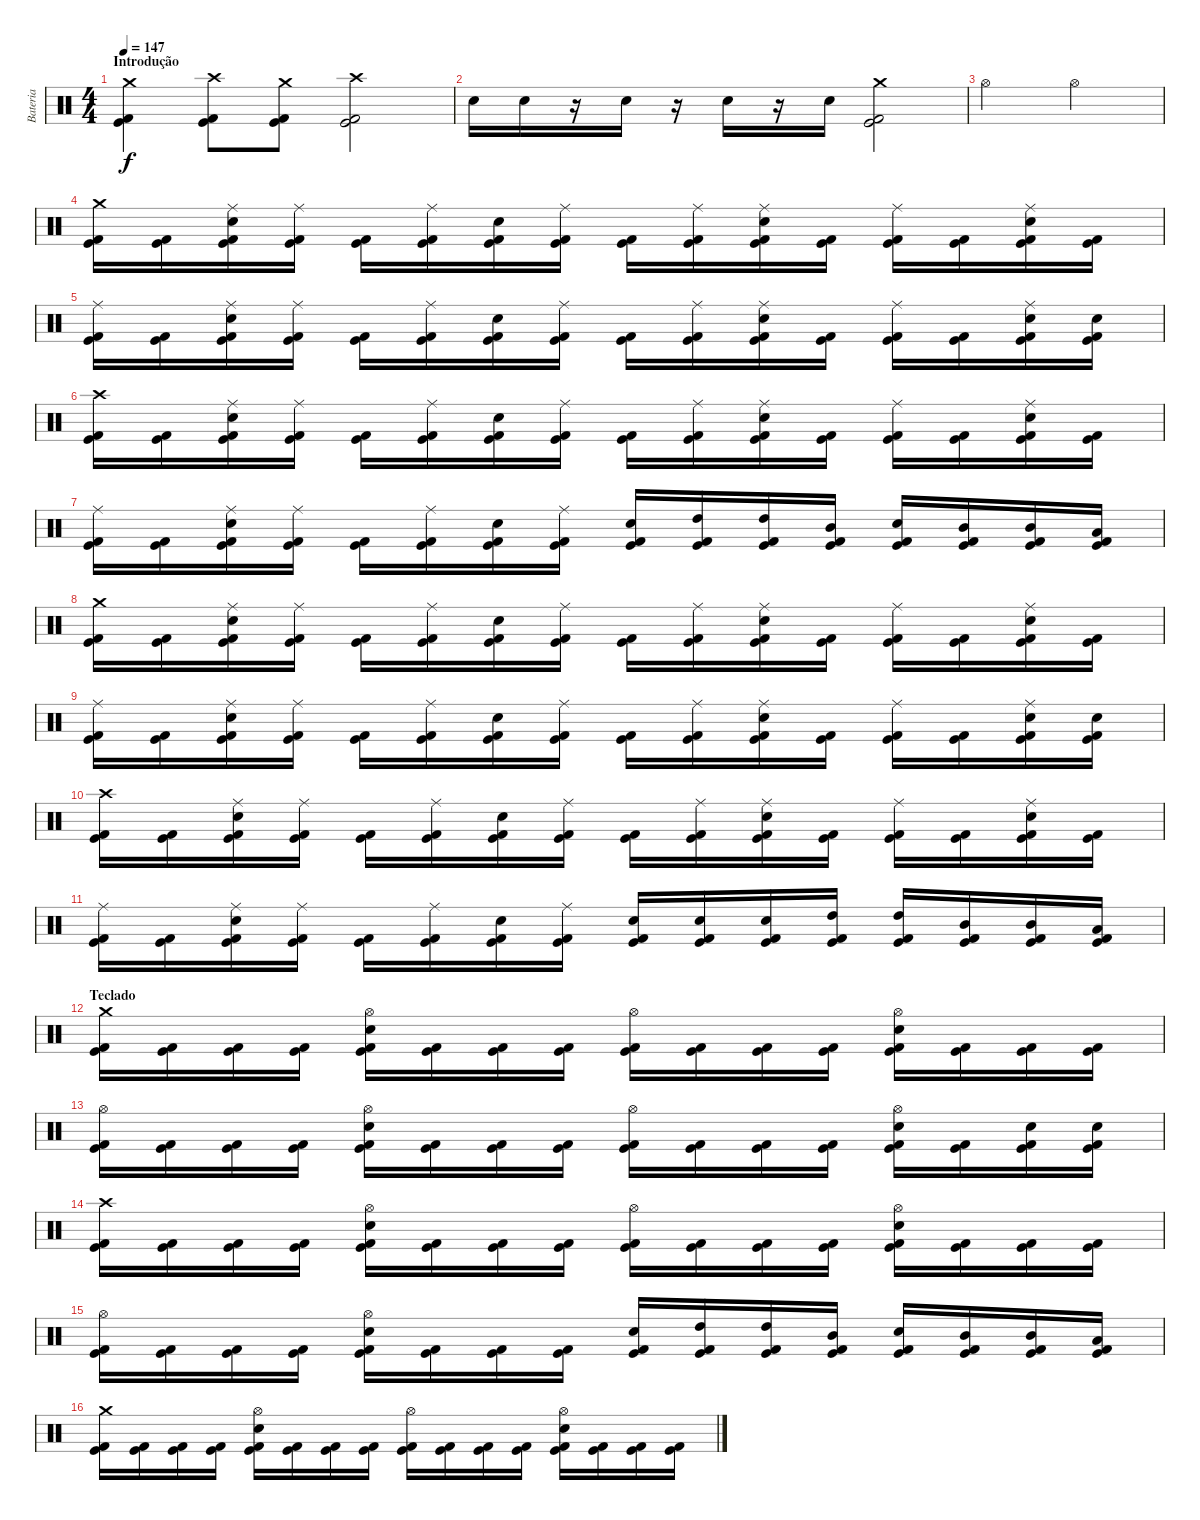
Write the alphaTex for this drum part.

\track ("Bateria" "Bateria") {instrument percussion}
\staff {score}
\articulation defaults
\ts (4 4)
\section ("" "Introdução")
\tempo 147
\clef neutral
\ks c
("Crash medium (hit)" "Kick (hit)" "Kick (hit) 2").4{dy f} ("Crash high (hit)" "Kick (hit)" "Kick (hit) 2").8 ("Crash medium (hit)" "Kick (hit)" "Kick (hit) 2").8 ("Crash high (hit)" "Kick (hit)" "Kick (hit) 2").2 |
"Electric Snare (hit)".16 "Electric Snare (hit)".16 r.16 "Electric Snare (hit)".16 r.16 "Electric Snare (hit)".16 r.16 "Electric Snare (hit)".16 ("Crash medium (hit)" "Kick (hit)" "Kick (hit) 2").2 |
"Hi-Hat (open)".2 "Hi-Hat (open)".2 |
("Crash medium (hit)" "Kick (hit)" "Kick (hit) 2").16 ("Kick (hit)" "Kick (hit) 2").16 ("Ride (middle)" "Electric Snare (hit)" "Kick (hit)" "Kick (hit) 2").16 ("Ride (middle)" "Kick (hit)" "Kick (hit) 2").16 ("Kick (hit)" "Kick (hit) 2").16 ("Ride (middle)" "Kick (hit)" "Kick (hit) 2").16 ("Electric Snare (hit)" "Kick (hit)" "Kick (hit) 2").16 ("Ride (middle)" "Kick (hit)" "Kick (hit) 2").16 ("Kick (hit)" "Kick (hit) 2").16 ("Ride (middle)" "Kick (hit)" "Kick (hit) 2").16 ("Ride (middle)" "Electric Snare (hit)" "Kick (hit)" "Kick (hit) 2").16 ("Kick (hit)" "Kick (hit) 2").16 ("Ride (middle)" "Kick (hit)" "Kick (hit) 2").16 ("Kick (hit)" "Kick (hit) 2").16 ("Ride (middle)" "Electric Snare (hit)" "Kick (hit)" "Kick (hit) 2").16 ("Kick (hit)" "Kick (hit) 2").16 |
("Ride (middle)" "Kick (hit)" "Kick (hit) 2").16 ("Kick (hit)" "Kick (hit) 2").16 ("Ride (middle)" "Electric Snare (hit)" "Kick (hit)" "Kick (hit) 2").16 ("Ride (middle)" "Kick (hit)" "Kick (hit) 2").16 ("Kick (hit)" "Kick (hit) 2").16 ("Ride (middle)" "Kick (hit)" "Kick (hit) 2").16 ("Electric Snare (hit)" "Kick (hit)" "Kick (hit) 2").16 ("Ride (middle)" "Kick (hit)" "Kick (hit) 2").16 ("Kick (hit)" "Kick (hit) 2").16 ("Ride (middle)" "Kick (hit)" "Kick (hit) 2").16 ("Ride (middle)" "Electric Snare (hit)" "Kick (hit)" "Kick (hit) 2").16 ("Kick (hit)" "Kick (hit) 2").16 ("Ride (middle)" "Kick (hit)" "Kick (hit) 2").16 ("Kick (hit)" "Kick (hit) 2").16 ("Ride (middle)" "Electric Snare (hit)" "Kick (hit)" "Kick (hit) 2").16 ("Electric Snare (hit)" "Kick (hit)" "Kick (hit) 2").16 |
("Crash high (hit)" "Kick (hit)" "Kick (hit) 2").16 ("Kick (hit)" "Kick (hit) 2").16 ("Ride (middle)" "Electric Snare (hit)" "Kick (hit)" "Kick (hit) 2").16 ("Ride (middle)" "Kick (hit)" "Kick (hit) 2").16 ("Kick (hit)" "Kick (hit) 2").16 ("Ride (middle)" "Kick (hit)" "Kick (hit) 2").16 ("Electric Snare (hit)" "Kick (hit)" "Kick (hit) 2").16 ("Ride (middle)" "Kick (hit)" "Kick (hit) 2").16 ("Kick (hit)" "Kick (hit) 2").16 ("Ride (middle)" "Kick (hit)" "Kick (hit) 2").16 ("Ride (middle)" "Electric Snare (hit)" "Kick (hit)" "Kick (hit) 2").16 ("Kick (hit)" "Kick (hit) 2").16 ("Ride (middle)" "Kick (hit)" "Kick (hit) 2").16 ("Kick (hit)" "Kick (hit) 2").16 ("Ride (middle)" "Electric Snare (hit)" "Kick (hit)" "Kick (hit) 2").16 ("Kick (hit)" "Kick (hit) 2").16 |
("Ride (middle)" "Kick (hit)" "Kick (hit) 2").16 ("Kick (hit)" "Kick (hit) 2").16 ("Ride (middle)" "Electric Snare (hit)" "Kick (hit)" "Kick (hit) 2").16 ("Ride (middle)" "Kick (hit)" "Kick (hit) 2").16 ("Kick (hit)" "Kick (hit) 2").16 ("Ride (middle)" "Kick (hit)" "Kick (hit) 2").16 ("Electric Snare (hit)" "Kick (hit)" "Kick (hit) 2").16 ("Ride (middle)" "Kick (hit)" "Kick (hit) 2").16 ("Electric Snare (hit)" "Kick (hit)" "Kick (hit) 2").16 ("High Tom (hit)" "Kick (hit)" "Kick (hit) 2").16 ("High Tom (hit)" "Kick (hit)" "Kick (hit) 2").16 ("Mid Tom (hit)" "Kick (hit)" "Kick (hit) 2").16 ("Electric Snare (hit)" "Kick (hit)" "Kick (hit) 2").16 ("Mid Tom (hit)" "Kick (hit)" "Kick (hit) 2").16 ("Mid Tom (hit)" "Kick (hit)" "Kick (hit) 2").16 ("Low Tom (hit)" "Kick (hit)" "Kick (hit) 2").16 |
("Crash medium (hit)" "Kick (hit)" "Kick (hit) 2").16 ("Kick (hit)" "Kick (hit) 2").16 ("Ride (middle)" "Electric Snare (hit)" "Kick (hit)" "Kick (hit) 2").16 ("Ride (middle)" "Kick (hit)" "Kick (hit) 2").16 ("Kick (hit)" "Kick (hit) 2").16 ("Ride (middle)" "Kick (hit)" "Kick (hit) 2").16 ("Electric Snare (hit)" "Kick (hit)" "Kick (hit) 2").16 ("Ride (middle)" "Kick (hit)" "Kick (hit) 2").16 ("Kick (hit)" "Kick (hit) 2").16 ("Ride (middle)" "Kick (hit)" "Kick (hit) 2").16 ("Ride (middle)" "Electric Snare (hit)" "Kick (hit)" "Kick (hit) 2").16 ("Kick (hit)" "Kick (hit) 2").16 ("Ride (middle)" "Kick (hit)" "Kick (hit) 2").16 ("Kick (hit)" "Kick (hit) 2").16 ("Ride (middle)" "Electric Snare (hit)" "Kick (hit)" "Kick (hit) 2").16 ("Kick (hit)" "Kick (hit) 2").16 |
("Ride (middle)" "Kick (hit)" "Kick (hit) 2").16 ("Kick (hit)" "Kick (hit) 2").16 ("Ride (middle)" "Electric Snare (hit)" "Kick (hit)" "Kick (hit) 2").16 ("Ride (middle)" "Kick (hit)" "Kick (hit) 2").16 ("Kick (hit)" "Kick (hit) 2").16 ("Ride (middle)" "Kick (hit)" "Kick (hit) 2").16 ("Electric Snare (hit)" "Kick (hit)" "Kick (hit) 2").16 ("Ride (middle)" "Kick (hit)" "Kick (hit) 2").16 ("Kick (hit)" "Kick (hit) 2").16 ("Ride (middle)" "Kick (hit)" "Kick (hit) 2").16 ("Ride (middle)" "Electric Snare (hit)" "Kick (hit)" "Kick (hit) 2").16 ("Kick (hit)" "Kick (hit) 2").16 ("Ride (middle)" "Kick (hit)" "Kick (hit) 2").16 ("Kick (hit)" "Kick (hit) 2").16 ("Ride (middle)" "Electric Snare (hit)" "Kick (hit)" "Kick (hit) 2").16 ("Electric Snare (hit)" "Kick (hit)" "Kick (hit) 2").16 |
("Crash high (hit)" "Kick (hit)" "Kick (hit) 2").16 ("Kick (hit)" "Kick (hit) 2").16 ("Ride (middle)" "Electric Snare (hit)" "Kick (hit)" "Kick (hit) 2").16 ("Ride (middle)" "Kick (hit)" "Kick (hit) 2").16 ("Kick (hit)" "Kick (hit) 2").16 ("Ride (middle)" "Kick (hit)" "Kick (hit) 2").16 ("Electric Snare (hit)" "Kick (hit)" "Kick (hit) 2").16 ("Ride (middle)" "Kick (hit)" "Kick (hit) 2").16 ("Kick (hit)" "Kick (hit) 2").16 ("Ride (middle)" "Kick (hit)" "Kick (hit) 2").16 ("Ride (middle)" "Electric Snare (hit)" "Kick (hit)" "Kick (hit) 2").16 ("Kick (hit)" "Kick (hit) 2").16 ("Ride (middle)" "Kick (hit)" "Kick (hit) 2").16 ("Kick (hit)" "Kick (hit) 2").16 ("Ride (middle)" "Electric Snare (hit)" "Kick (hit)" "Kick (hit) 2").16 ("Kick (hit)" "Kick (hit) 2").16 |
("Ride (middle)" "Kick (hit)" "Kick (hit) 2").16 ("Kick (hit)" "Kick (hit) 2").16 ("Ride (middle)" "Electric Snare (hit)" "Kick (hit)" "Kick (hit) 2").16 ("Ride (middle)" "Kick (hit)" "Kick (hit) 2").16 ("Kick (hit)" "Kick (hit) 2").16 ("Ride (middle)" "Kick (hit)" "Kick (hit) 2").16 ("Electric Snare (hit)" "Kick (hit)" "Kick (hit) 2").16 ("Ride (middle)" "Kick (hit)" "Kick (hit) 2").16 ("Electric Snare (hit)" "Kick (hit)" "Kick (hit) 2").16 ("Electric Snare (hit)" "Kick (hit)" "Kick (hit) 2").16 ("Electric Snare (hit)" "Kick (hit)" "Kick (hit) 2").16 ("High Tom (hit)" "Kick (hit)" "Kick (hit) 2").16 ("High Tom (hit)" "Kick (hit)" "Kick (hit) 2").16 ("Mid Tom (hit)" "Kick (hit)" "Kick (hit) 2").16 ("Mid Tom (hit)" "Kick (hit)" "Kick (hit) 2").16 ("Low Tom (hit)" "Kick (hit)" "Kick (hit) 2").16 |
\section ("" "Teclado")
("Crash medium (hit)" "Kick (hit)" "Kick (hit) 2").16 ("Kick (hit)" "Kick (hit) 2").16 ("Kick (hit)" "Kick (hit) 2").16 ("Kick (hit)" "Kick (hit) 2").16 ("Hi-Hat (open)" "Electric Snare (hit)" "Kick (hit)" "Kick (hit) 2").16 ("Kick (hit)" "Kick (hit) 2").16 ("Kick (hit)" "Kick (hit) 2").16 ("Kick (hit)" "Kick (hit) 2").16 ("Hi-Hat (open)" "Kick (hit)" "Kick (hit) 2").16 ("Kick (hit)" "Kick (hit) 2").16 ("Kick (hit)" "Kick (hit) 2").16 ("Kick (hit)" "Kick (hit) 2").16 ("Hi-Hat (open)" "Electric Snare (hit)" "Kick (hit)" "Kick (hit) 2").16 ("Kick (hit)" "Kick (hit) 2").16 ("Kick (hit)" "Kick (hit) 2").16 ("Kick (hit)" "Kick (hit) 2").16 |
("Hi-Hat (open)" "Kick (hit)" "Kick (hit) 2").16 ("Kick (hit)" "Kick (hit) 2").16 ("Kick (hit)" "Kick (hit) 2").16 ("Kick (hit)" "Kick (hit) 2").16 ("Hi-Hat (open)" "Electric Snare (hit)" "Kick (hit)" "Kick (hit) 2").16 ("Kick (hit)" "Kick (hit) 2").16 ("Kick (hit)" "Kick (hit) 2").16 ("Kick (hit)" "Kick (hit) 2").16 ("Hi-Hat (open)" "Kick (hit)" "Kick (hit) 2").16 ("Kick (hit)" "Kick (hit) 2").16 ("Kick (hit)" "Kick (hit) 2").16 ("Kick (hit)" "Kick (hit) 2").16 ("Hi-Hat (open)" "Electric Snare (hit)" "Kick (hit)" "Kick (hit) 2").16 ("Kick (hit)" "Kick (hit) 2").16 ("Electric Snare (hit)" "Kick (hit)" "Kick (hit) 2").16 ("Electric Snare (hit)" "Kick (hit)" "Kick (hit) 2").16 |
("Crash high (hit)" "Kick (hit)" "Kick (hit) 2").16 ("Kick (hit)" "Kick (hit) 2").16 ("Kick (hit)" "Kick (hit) 2").16 ("Kick (hit)" "Kick (hit) 2").16 ("Hi-Hat (open)" "Electric Snare (hit)" "Kick (hit)" "Kick (hit) 2").16 ("Kick (hit)" "Kick (hit) 2").16 ("Kick (hit)" "Kick (hit) 2").16 ("Kick (hit)" "Kick (hit) 2").16 ("Hi-Hat (open)" "Kick (hit)" "Kick (hit) 2").16 ("Kick (hit)" "Kick (hit) 2").16 ("Kick (hit)" "Kick (hit) 2").16 ("Kick (hit)" "Kick (hit) 2").16 ("Hi-Hat (open)" "Electric Snare (hit)" "Kick (hit)" "Kick (hit) 2").16 ("Kick (hit)" "Kick (hit) 2").16 ("Kick (hit)" "Kick (hit) 2").16 ("Kick (hit)" "Kick (hit) 2").16 |
("Hi-Hat (open)" "Kick (hit)" "Kick (hit) 2").16 ("Kick (hit)" "Kick (hit) 2").16 ("Kick (hit)" "Kick (hit) 2").16 ("Kick (hit)" "Kick (hit) 2").16 ("Hi-Hat (open)" "Electric Snare (hit)" "Kick (hit)" "Kick (hit) 2").16 ("Kick (hit)" "Kick (hit) 2").16 ("Kick (hit)" "Kick (hit) 2").16 ("Kick (hit)" "Kick (hit) 2").16 ("Electric Snare (hit)" "Kick (hit)" "Kick (hit) 2").16 ("High Tom (hit)" "Kick (hit)" "Kick (hit) 2").16 ("High Tom (hit)" "Kick (hit)" "Kick (hit) 2").16 ("Mid Tom (hit)" "Kick (hit)" "Kick (hit) 2").16 ("Electric Snare (hit)" "Kick (hit)" "Kick (hit) 2").16 ("Mid Tom (hit)" "Kick (hit)" "Kick (hit) 2").16 ("Mid Tom (hit)" "Kick (hit)" "Kick (hit) 2").16 ("Low Tom (hit)" "Kick (hit)" "Kick (hit) 2").16 |
("Crash medium (hit)" "Kick (hit)" "Kick (hit) 2").16 ("Kick (hit)" "Kick (hit) 2").16 ("Kick (hit)" "Kick (hit) 2").16 ("Kick (hit)" "Kick (hit) 2").16 ("Hi-Hat (open)" "Electric Snare (hit)" "Kick (hit)" "Kick (hit) 2").16 ("Kick (hit)" "Kick (hit) 2").16 ("Kick (hit)" "Kick (hit) 2").16 ("Kick (hit)" "Kick (hit) 2").16 ("Hi-Hat (open)" "Kick (hit)" "Kick (hit) 2").16 ("Kick (hit)" "Kick (hit) 2").16 ("Kick (hit)" "Kick (hit) 2").16 ("Kick (hit)" "Kick (hit) 2").16 ("Hi-Hat (open)" "Electric Snare (hit)" "Kick (hit)" "Kick (hit) 2").16 ("Kick (hit)" "Kick (hit) 2").16 ("Kick (hit)" "Kick (hit) 2").16 ("Kick (hit)" "Kick (hit) 2").16
